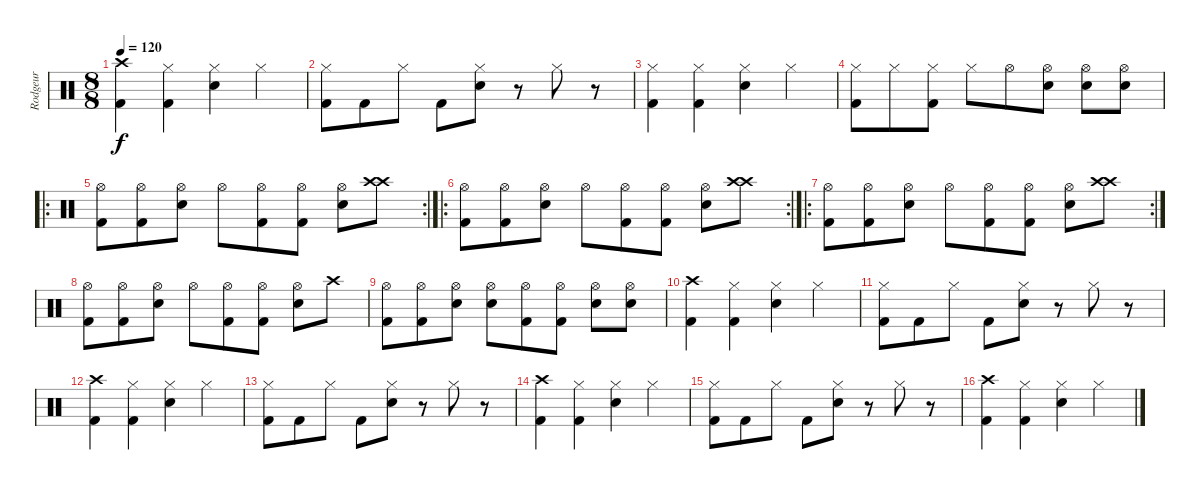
\track ("Rodgeur" "Rodgeur") {instrument percussion}
\staff {score}
\articulation defaults
\ts (8 8)
\tempo 120
\clef neutral
\ks c
("Crash high (hit)" "Kick (hit) 2").4{dy f} ("Hi-Hat (closed)" "Kick (hit) 2").4 ("Hi-Hat (closed)" "Electric Snare (hit)").4 "Hi-Hat (closed)".4 |
("Hi-Hat (closed)" "Kick (hit) 2").8 "Kick (hit) 2".8 "Hi-Hat (closed)".8 "Kick (hit) 2".8 ("Hi-Hat (closed)" "Electric Snare (hit)").8 r.8 "Hi-Hat (closed)".8 r.8 |
("Hi-Hat (closed)" "Kick (hit) 2").4 ("Hi-Hat (closed)" "Kick (hit) 2").4 ("Hi-Hat (closed)" "Electric Snare (hit)").4 "Hi-Hat (closed)".4 |
("Hi-Hat (closed)" "Kick (hit) 2").8 "Hi-Hat (closed)".8 ("Hi-Hat (closed)" "Kick (hit) 2").8 "Hi-Hat (closed)".8 "Hi-Hat (open)".8 ("Hi-Hat (open)" "Electric Snare (hit)").8 ("Hi-Hat (open)" "Electric Snare (hit)").8 ("Hi-Hat (open)" "Electric Snare (hit)").8 |
\ro
\rc 2
("Hi-Hat (open)" "Kick (hit) 2").8 ("Hi-Hat (open)" "Kick (hit) 2").8 ("Hi-Hat (open)" "Electric Snare (hit)").8 "Hi-Hat (open)".8 ("Hi-Hat (open)" "Kick (hit) 2").8 ("Hi-Hat (open)" "Kick (hit) 2").8 ("Hi-Hat (open)" "Electric Snare (hit)").8 ("Crash high (hit)" "Crash high (hit)").8 |
\ro
\rc 2
("Hi-Hat (open)" "Kick (hit) 2").8 ("Hi-Hat (open)" "Kick (hit) 2").8 ("Hi-Hat (open)" "Electric Snare (hit)").8 "Hi-Hat (open)".8 ("Hi-Hat (open)" "Kick (hit) 2").8 ("Hi-Hat (open)" "Kick (hit) 2").8 ("Hi-Hat (open)" "Electric Snare (hit)").8 ("Crash high (hit)" "Crash high (hit)").8 |
\ro
\rc 2
("Hi-Hat (open)" "Kick (hit) 2").8 ("Hi-Hat (open)" "Kick (hit) 2").8 ("Hi-Hat (open)" "Electric Snare (hit)").8 "Hi-Hat (open)".8 ("Hi-Hat (open)" "Kick (hit) 2").8 ("Hi-Hat (open)" "Kick (hit) 2").8 ("Hi-Hat (open)" "Electric Snare (hit)").8 ("Crash high (hit)" "Crash high (hit)").8 |
("Hi-Hat (open)" "Kick (hit) 2").8 ("Hi-Hat (open)" "Kick (hit) 2").8 ("Hi-Hat (open)" "Electric Snare (hit)").8 "Hi-Hat (open)".8 ("Hi-Hat (open)" "Kick (hit) 2").8 ("Hi-Hat (open)" "Kick (hit) 2").8 ("Hi-Hat (open)" "Electric Snare (hit)").8 "Crash high (hit)".8 |
("Hi-Hat (open)" "Kick (hit) 2").8 ("Hi-Hat (open)" "Kick (hit) 2").8 ("Hi-Hat (open)" "Electric Snare (hit)").8 ("Hi-Hat (open)" "Electric Snare (hit)").8 ("Hi-Hat (open)" "Kick (hit) 2").8 ("Hi-Hat (open)" "Kick (hit) 2").8 ("Hi-Hat (open)" "Electric Snare (hit)").8 ("Hi-Hat (open)" "Electric Snare (hit)").8 |
("Crash high (hit)" "Kick (hit) 2").4 ("Hi-Hat (closed)" "Kick (hit) 2").4 ("Hi-Hat (closed)" "Electric Snare (hit)").4 "Hi-Hat (closed)".4 |
("Hi-Hat (closed)" "Kick (hit) 2").8 "Kick (hit) 2".8 "Hi-Hat (closed)".8 "Kick (hit) 2".8 ("Hi-Hat (closed)" "Electric Snare (hit)").8 r.8 "Hi-Hat (closed)".8 r.8 |
("Crash high (hit)" "Kick (hit) 2").4 ("Hi-Hat (closed)" "Kick (hit) 2").4 ("Hi-Hat (closed)" "Electric Snare (hit)").4 "Hi-Hat (closed)".4 |
("Hi-Hat (closed)" "Kick (hit) 2").8 "Kick (hit) 2".8 "Hi-Hat (closed)".8 "Kick (hit) 2".8 ("Hi-Hat (closed)" "Electric Snare (hit)").8 r.8 "Hi-Hat (closed)".8 r.8 |
("Crash high (hit)" "Kick (hit) 2").4 ("Hi-Hat (closed)" "Kick (hit) 2").4 ("Hi-Hat (closed)" "Electric Snare (hit)").4 "Hi-Hat (closed)".4 |
("Hi-Hat (closed)" "Kick (hit) 2").8 "Kick (hit) 2".8 "Hi-Hat (closed)".8 "Kick (hit) 2".8 ("Hi-Hat (closed)" "Electric Snare (hit)").8 r.8 "Hi-Hat (closed)".8 r.8 |
("Crash high (hit)" "Kick (hit) 2").4 ("Hi-Hat (closed)" "Kick (hit) 2").4 ("Hi-Hat (closed)" "Electric Snare (hit)").4 "Hi-Hat (closed)".4
